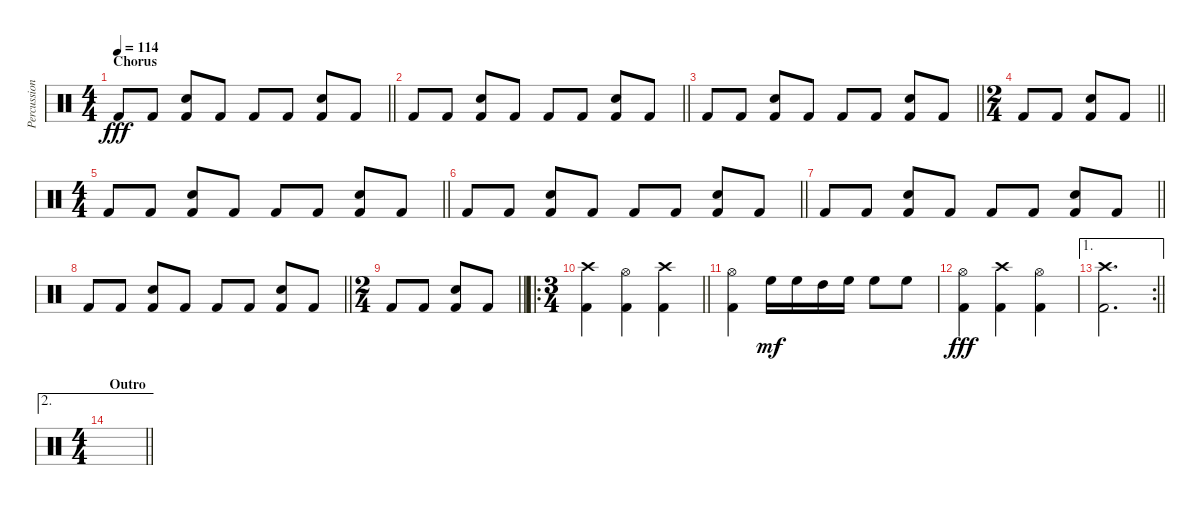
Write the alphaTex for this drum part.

\track ("Percussion" "Percussion") {instrument percussion}
\staff {score}
\articulation defaults
\ts (4 4)
\section ("" "Chorus")
\tempo 114
\clef neutral
\barLineRight lightlight
\ks c "Kick (hit) 2".8{dy fff} "Kick (hit) 2".8
("Snare (hit) 2" "Kick (hit) 2").8 "Kick (hit) 2".8 "Kick (hit) 2".8 "Kick (hit) 2".8 ("Snare (hit) 2" "Kick (hit) 2").8 "Kick (hit) 2".8 |
\barLineRight lightlight "Kick (hit) 2".8 "Kick (hit) 2".8
("Snare (hit) 2" "Kick (hit) 2").8 "Kick (hit) 2".8 "Kick (hit) 2".8 "Kick (hit) 2".8 ("Snare (hit) 2" "Kick (hit) 2").8 "Kick (hit) 2".8 |
\barLineRight lightlight "Kick (hit) 2".8 "Kick (hit) 2".8
("Snare (hit) 2" "Kick (hit) 2").8 "Kick (hit) 2".8 "Kick (hit) 2".8 "Kick (hit) 2".8 ("Snare (hit) 2" "Kick (hit) 2").8 "Kick (hit) 2".8 |
\ts (2 4)
\barLineRight lightlight "Kick (hit) 2".8 "Kick (hit) 2".8
("Snare (hit) 2" "Kick (hit) 2").8 "Kick (hit) 2".8 |
\ts (4 4)
\barLineRight lightlight "Kick (hit) 2".8 "Kick (hit) 2".8
("Snare (hit) 2" "Kick (hit) 2").8 "Kick (hit) 2".8 "Kick (hit) 2".8 "Kick (hit) 2".8 ("Snare (hit) 2" "Kick (hit) 2").8 "Kick (hit) 2".8 |
\barLineRight lightlight "Kick (hit) 2".8 "Kick (hit) 2".8
("Snare (hit) 2" "Kick (hit) 2").8 "Kick (hit) 2".8 "Kick (hit) 2".8 "Kick (hit) 2".8 ("Snare (hit) 2" "Kick (hit) 2").8 "Kick (hit) 2".8 |
\barLineRight lightlight "Kick (hit) 2".8 "Kick (hit) 2".8
("Snare (hit) 2" "Kick (hit) 2").8 "Kick (hit) 2".8 "Kick (hit) 2".8 "Kick (hit) 2".8 ("Snare (hit) 2" "Kick (hit) 2").8 "Kick (hit) 2".8 |
\barLineRight lightlight "Kick (hit) 2".8 "Kick (hit) 2".8
("Snare (hit) 2" "Kick (hit) 2").8 "Kick (hit) 2".8 "Kick (hit) 2".8 "Kick (hit) 2".8 ("Snare (hit) 2" "Kick (hit) 2").8 "Kick (hit) 2".8 |
\ts (2 4)
\barLineRight lightlight "Kick (hit) 2".8 "Kick (hit) 2".8
("Snare (hit) 2" "Kick (hit) 2").8 "Kick (hit) 2".8 |
\ro
\ts (3 4)
\barLineRight lightlight
("Crash high (hit)" "Kick (hit) 2").4 ("Hi-Hat (open)" "Kick (hit) 2").4 ("Crash high (hit)" "Kick (hit) 2").4 |
("Hi-Hat (open)" "Kick (hit) 2").4 "High Floor Tom (hit)".16{dy mf} "High Floor Tom (hit)".16 "High Tom (hit)".16 "High Floor Tom (hit)".16 "High Floor Tom (hit)".8 "High Floor Tom (hit)".8 |
("Hi-Hat (open)" "Kick (hit) 2").4{dy fff} ("Crash high (hit)" "Kick (hit) 2").4 ("Hi-Hat (open)" "Kick (hit) 2").4 |
\ae 1
\rc 2
\barLineRight lightlight
("Crash high (hit)" "Kick (hit) 2").2{d} |
\ae 2
\ts (4 4)
\section ("" "Outro")
\barLineRight lightlight
